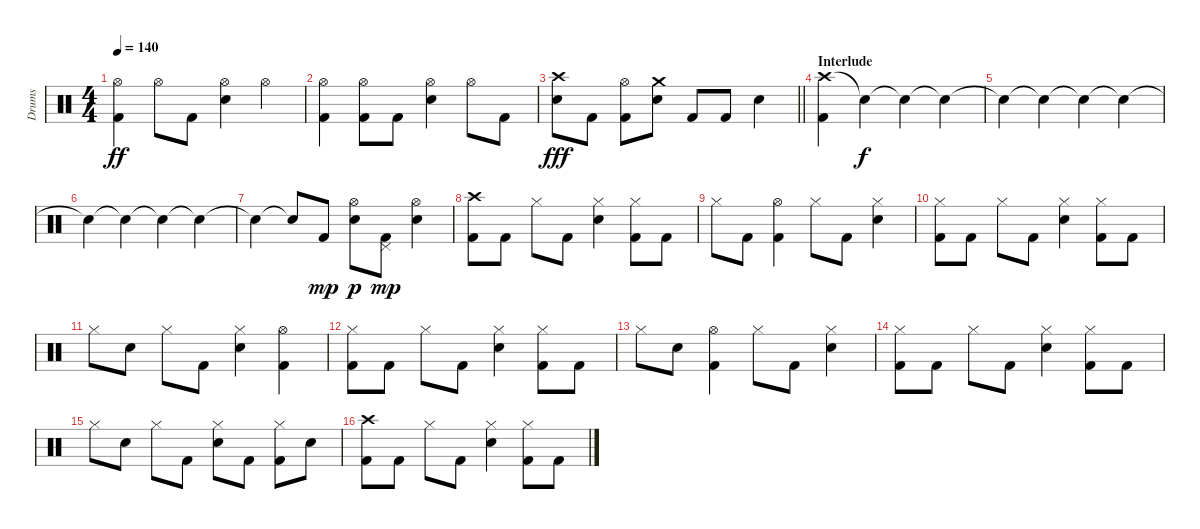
\track ("Drums" "Drums") {instrument percussion}
\staff {score}
\articulation defaults
\ts (4 4)
\tempo 140
\clef neutral
\ks c
("Hi-Hat (open)" "Kick (hit) 2").4{dy ff} "Hi-Hat (open)".8 "Kick (hit) 2".8 ("Hi-Hat (open)" "Snare (hit) 2").4 "Hi-Hat (open)".4 |
("Hi-Hat (open)" "Kick (hit) 2").4 ("Hi-Hat (open)" "Kick (hit) 2").8 "Kick (hit) 2".8 ("Hi-Hat (open)" "Snare (hit) 2").4 "Hi-Hat (open)".8 "Kick (hit) 2".8 |
\barLineRight lightlight
("Crash high (hit)" "Snare (hit) 2").8{dy fff} "Kick (hit) 2".8 ("Hi-Hat (open)" "Kick (hit) 2").8 ("Crash medium (hit)" "Snare (hit) 2").8 "Kick (hit) 2".8 "Kick (hit) 2".8 "Snare (hit) 2".4 |
\section ("" "Interlude")
("Crash high (hit)" "Kick (hit) 2").4 "Snare (hit)"{t}.4{dy f} "Snare (hit)"{t}.4 "Snare (hit)"{t}.4 |
"Snare (hit)"{t}.4 "Snare (hit)"{t}.4 "Snare (hit)"{t}.4 "Snare (hit)"{t}.4 |
"Snare (hit)"{t}.4 "Snare (hit)"{t}.4 "Snare (hit)"{t}.4 "Snare (hit)"{t}.4 |
"Snare (hit)"{t}.4 "Snare (hit)"{t}.8 "Kick (hit) 2".8{dy mp} ("Hi-Hat (open)" "Snare (hit) 2").8{dy p} ("Pedal Hi-Hat (hit)" "Kick (hit) 2").8{dy mp} ("Hi-Hat (open)" "Snare (hit) 2").4 |
("Crash high (hit)" "Kick (hit) 2").8 "Kick (hit) 2".8 "Hi-Hat (closed)".8 "Kick (hit) 2".8 ("Hi-Hat (closed)" "Snare (hit) 2").4 ("Hi-Hat (closed)" "Kick (hit) 2").8 "Kick (hit) 2".8 |
"Hi-Hat (closed)".8 "Kick (hit) 2".8 ("Hi-Hat (open)" "Kick (hit) 2").4 "Hi-Hat (closed)".8 "Kick (hit) 2".8 ("Hi-Hat (closed)" "Snare (hit) 2").4 |
("Hi-Hat (closed)" "Kick (hit) 2").8 "Kick (hit) 2".8 "Hi-Hat (closed)".8 "Kick (hit) 2".8 ("Hi-Hat (closed)" "Snare (hit) 2").4 ("Hi-Hat (closed)" "Kick (hit) 2").8 "Kick (hit) 2".8 |
"Hi-Hat (closed)".8 "Snare (hit) 2".8 "Hi-Hat (closed)".8 "Kick (hit) 2".8 ("Hi-Hat (closed)" "Snare (hit) 2").4 ("Hi-Hat (open)" "Kick (hit) 2").4 |
("Hi-Hat (closed)" "Kick (hit) 2").8 "Kick (hit) 2".8 "Hi-Hat (closed)".8 "Kick (hit) 2".8 ("Hi-Hat (closed)" "Snare (hit) 2").4 ("Hi-Hat (closed)" "Kick (hit) 2").8 "Kick (hit) 2".8 |
"Hi-Hat (closed)".8 "Snare (hit) 2".8 ("Hi-Hat (open)" "Kick (hit) 2").4 "Hi-Hat (closed)".8 "Kick (hit) 2".8 ("Hi-Hat (closed)" "Snare (hit) 2").4 |
("Hi-Hat (closed)" "Kick (hit) 2").8 "Kick (hit) 2".8 "Hi-Hat (closed)".8 "Kick (hit) 2".8 ("Hi-Hat (closed)" "Snare (hit) 2").4 ("Hi-Hat (closed)" "Kick (hit) 2").8 "Kick (hit) 2".8 |
"Hi-Hat (closed)".8 "Snare (hit) 2".8 "Hi-Hat (closed)".8 "Kick (hit) 2".8 ("Hi-Hat (closed)" "Snare (hit) 2").8 "Kick (hit) 2".8 ("Hi-Hat (closed)" "Kick (hit) 2").8 "Snare (hit) 2".8 |
("Crash high (hit)" "Kick (hit) 2").8 "Kick (hit) 2".8 "Hi-Hat (closed)".8 "Kick (hit) 2".8 ("Hi-Hat (closed)" "Snare (hit) 2").4 ("Hi-Hat (closed)" "Kick (hit) 2").8 "Kick (hit) 2".8
